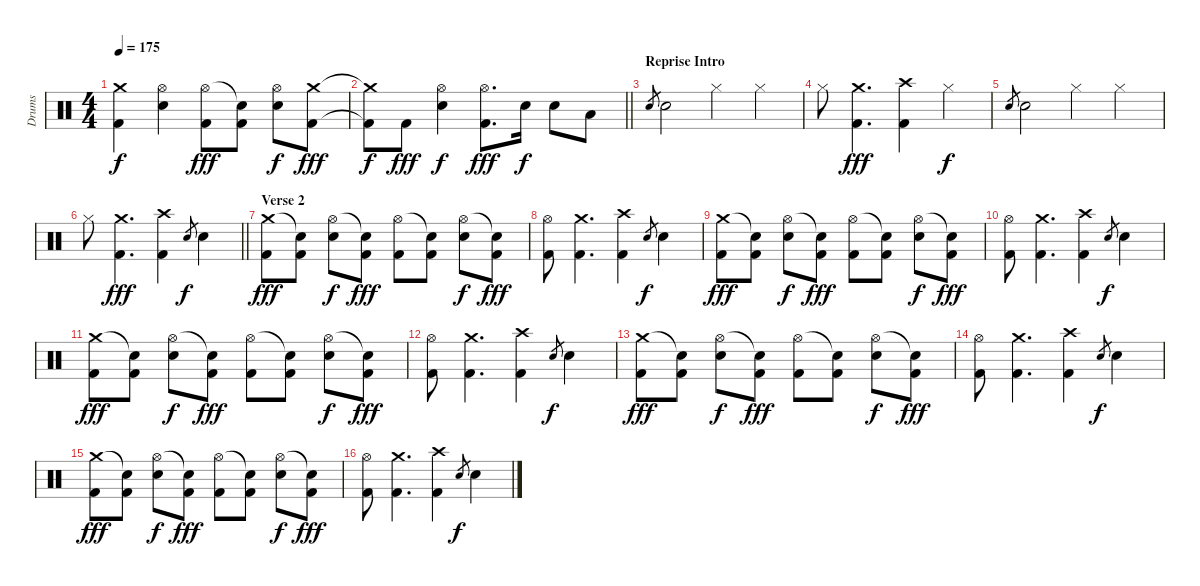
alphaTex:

\track ("Drums" "Drums") {instrument percussion}
\staff {score}
\articulation defaults
\ts (4 4)
\tempo 175
\clef neutral
\ks c
("Crash medium (hit)"{t} "Kick (hit) 2"{t}).4{dy f} ("Hi-Hat (open)" "Snare (hit) 2").4 ("Hi-Hat (open)" "Kick (hit) 2").8{dy fff} ("Snare (hit)"{t} "Kick (hit) 2").8 ("Hi-Hat (open)" "Snare (hit) 2").8{dy f} ("Crash medium (hit)" "Kick (hit) 2").8{dy fff} |
\barLineRight lightlight
("Crash medium (hit)"{t} "Kick (hit) 2"{t}).8{dy f} "Kick (hit) 2".8{dy fff} ("Hi-Hat (open)" "Snare (hit) 2").4{dy f} ("Hi-Hat (open)" "Kick (hit) 2").8{d dy fff} "Snare (hit) 2".16{dy f} "Snare (hit) 2".8 "Low Tom (hit)".8 |
\section ("" "Reprise Intro")
"Snare (hit) 2".8{gr} "Snare (hit) 2".2 "Hi-Hat (closed)".4 "Hi-Hat (closed)".4 |
"Hi-Hat (closed)".8 ("Crash medium (hit)" "Kick (hit) 2").4{d dy fff} ("Crash high (hit)" "Kick (hit) 2").4 "Hi-Hat (closed)".4{dy f} |
"Snare (hit) 2".8{gr} "Snare (hit) 2".2 "Hi-Hat (closed)".4 "Hi-Hat (closed)".4 |
\barLineRight lightlight "Hi-Hat (closed)".8
("Crash medium (hit)" "Kick (hit) 2").4{d dy fff} ("Crash high (hit)" "Kick (hit) 2").4 "Snare (hit) 2".8{gr dy f} "Snare (hit) 2".4 |
\section ("" "Verse 2")
("Crash medium (hit)" "Kick (hit) 2").8{dy fff} ("Snare (hit)"{t} "Kick (hit) 2").8 ("Hi-Hat (open)" "Snare (hit) 2").8{dy f} ("Snare (hit)"{t} "Kick (hit) 2").8{dy fff} ("Hi-Hat (open)" "Kick (hit) 2").8 ("Snare (hit)"{t} "Kick (hit) 2").8 ("Hi-Hat (open)" "Snare (hit) 2").8{dy f} ("Snare (hit)"{t} "Kick (hit) 2").8{dy fff} |
("Hi-Hat (open)" "Kick (hit) 2").8 ("Crash medium (hit)" "Kick (hit) 2").4{d} ("Crash high (hit)" "Kick (hit) 2").4 "Snare (hit) 2".8{gr dy f} "Snare (hit) 2".4 |
("Crash medium (hit)" "Kick (hit) 2").8{dy fff} ("Snare (hit)"{t} "Kick (hit) 2").8 ("Hi-Hat (open)" "Snare (hit) 2").8{dy f} ("Snare (hit)"{t} "Kick (hit) 2").8{dy fff} ("Hi-Hat (open)" "Kick (hit) 2").8 ("Snare (hit)"{t} "Kick (hit) 2").8 ("Hi-Hat (open)" "Snare (hit) 2").8{dy f} ("Snare (hit)"{t} "Kick (hit) 2").8{dy fff} |
("Hi-Hat (open)" "Kick (hit) 2").8 ("Crash medium (hit)" "Kick (hit) 2").4{d} ("Crash high (hit)" "Kick (hit) 2").4 "Snare (hit) 2".8{gr dy f} "Snare (hit) 2".4 |
("Crash medium (hit)" "Kick (hit) 2").8{dy fff} ("Snare (hit)"{t} "Kick (hit) 2").8 ("Hi-Hat (open)" "Snare (hit) 2").8{dy f} ("Snare (hit)"{t} "Kick (hit) 2").8{dy fff} ("Hi-Hat (open)" "Kick (hit) 2").8 ("Snare (hit)"{t} "Kick (hit) 2").8 ("Hi-Hat (open)" "Snare (hit) 2").8{dy f} ("Snare (hit)"{t} "Kick (hit) 2").8{dy fff} |
("Hi-Hat (open)" "Kick (hit) 2").8 ("Crash medium (hit)" "Kick (hit) 2").4{d} ("Crash high (hit)" "Kick (hit) 2").4 "Snare (hit) 2".8{gr dy f} "Snare (hit) 2".4 |
("Crash medium (hit)" "Kick (hit) 2").8{dy fff} ("Snare (hit)"{t} "Kick (hit) 2").8 ("Hi-Hat (open)" "Snare (hit) 2").8{dy f} ("Snare (hit)"{t} "Kick (hit) 2").8{dy fff} ("Hi-Hat (open)" "Kick (hit) 2").8 ("Snare (hit)"{t} "Kick (hit) 2").8 ("Hi-Hat (open)" "Snare (hit) 2").8{dy f} ("Snare (hit)"{t} "Kick (hit) 2").8{dy fff} |
("Hi-Hat (open)" "Kick (hit) 2").8 ("Crash medium (hit)" "Kick (hit) 2").4{d} ("Crash high (hit)" "Kick (hit) 2").4 "Snare (hit) 2".8{gr dy f} "Snare (hit) 2".4 |
("Crash medium (hit)" "Kick (hit) 2").8{dy fff} ("Snare (hit)"{t} "Kick (hit) 2").8 ("Hi-Hat (open)" "Snare (hit) 2").8{dy f} ("Snare (hit)"{t} "Kick (hit) 2").8{dy fff} ("Hi-Hat (open)" "Kick (hit) 2").8 ("Snare (hit)"{t} "Kick (hit) 2").8 ("Hi-Hat (open)" "Snare (hit) 2").8{dy f} ("Snare (hit)"{t} "Kick (hit) 2").8{dy fff} |
("Hi-Hat (open)" "Kick (hit) 2").8 ("Crash medium (hit)" "Kick (hit) 2").4{d} ("Crash high (hit)" "Kick (hit) 2").4 "Snare (hit) 2".8{gr dy f} "Snare (hit) 2".4
